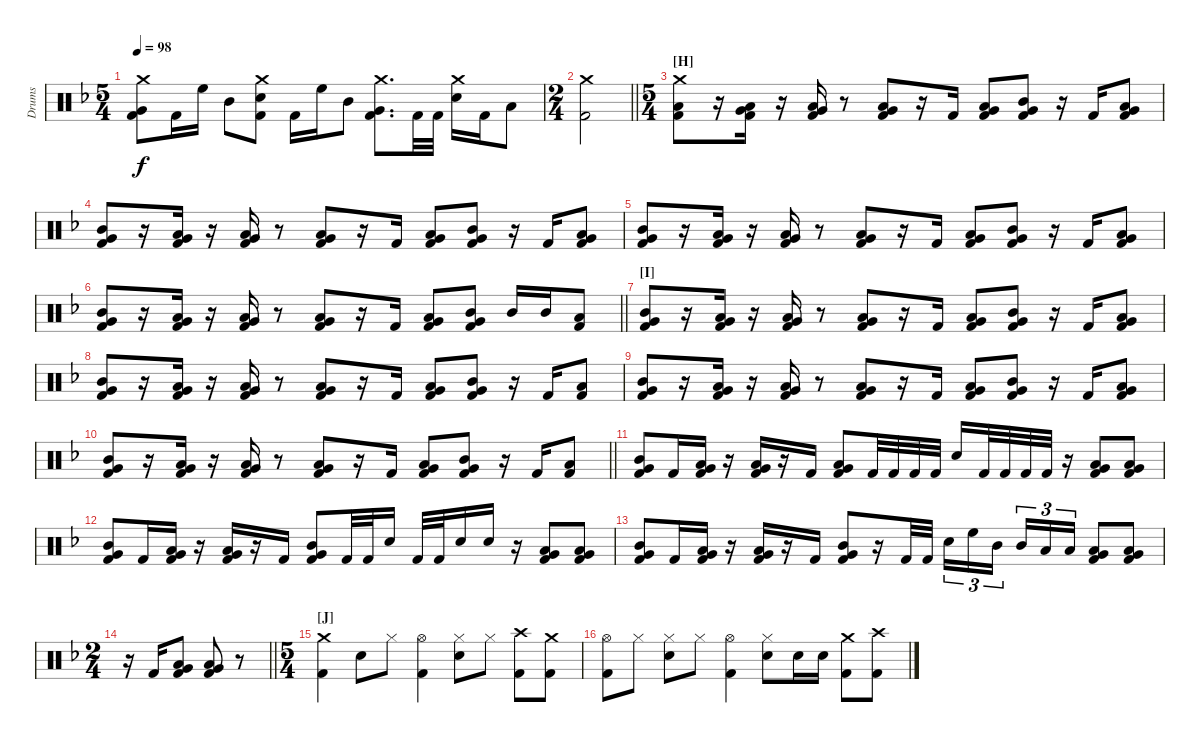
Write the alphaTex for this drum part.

\track ("Drums" "Drums") {instrument percussion}
\staff {score}
\articulation defaults
\ts (5 4)
\tempo 98
\clef neutral
\ks dminor
("Crash medium (hit)" "Very Low Tom (hit)" "Kick (hit) 2").8{dy f} "Kick (hit) 2".16 "High Floor Tom (hit)".16 "Mid Tom (hit)".8 ("Crash medium (hit)" "Electric Snare (hit)" "Kick (hit) 2").8 "Kick (hit) 2".16 "High Floor Tom (hit)".16 "Mid Tom (hit)".8 ("Crash medium (hit)" "Very Low Tom (hit)" "Kick (hit) 2").8{d} "Kick (hit) 2".32 "Kick (hit) 2".32 ("Crash medium (hit)" "Electric Snare (hit)").16 "Kick (hit) 2".16 "Low Tom (hit)".8 |
\ts (2 4)
\barLineRight lightlight
("Crash medium (hit)" "Kick (hit) 2").2 |
\ts (5 4)
\section ("" "[H]")
("Crash medium (hit)" "Low Tom (hit)" "Kick (hit) 2").8 r.16 ("Low Tom (hit)" "Very Low Tom (hit)" "Kick (hit) 2").16 r.16 ("Low Tom (hit)" "Very Low Tom (hit)" "Kick (hit) 2").16 r.8 ("Low Tom (hit)" "Very Low Tom (hit)" "Kick (hit) 2").8 r.16 "Kick (hit) 2".16 ("Low Tom (hit)" "Very Low Tom (hit)" "Kick (hit) 2").8 ("Mid Tom (hit)" "Very Low Tom (hit)" "Kick (hit) 2").8 r.16 "Kick (hit) 2".16 ("Low Tom (hit)" "Very Low Tom (hit)" "Kick (hit) 2").8 |
("Mid Tom (hit)" "Very Low Tom (hit)" "Kick (hit) 2").8 r.16 ("Low Tom (hit)" "Very Low Tom (hit)" "Kick (hit) 2").16 r.16 ("Low Tom (hit)" "Very Low Tom (hit)" "Kick (hit) 2").16 r.8 ("Low Tom (hit)" "Very Low Tom (hit)" "Kick (hit) 2").8 r.16 "Kick (hit) 2".16 ("Low Tom (hit)" "Very Low Tom (hit)" "Kick (hit) 2").8 ("Mid Tom (hit)" "Very Low Tom (hit)" "Kick (hit) 2").8 r.16 "Kick (hit) 2".16 ("Low Tom (hit)" "Very Low Tom (hit)" "Kick (hit) 2").8 |
("Mid Tom (hit)" "Very Low Tom (hit)" "Kick (hit) 2").8 r.16 ("Low Tom (hit)" "Very Low Tom (hit)" "Kick (hit) 2").16 r.16 ("Low Tom (hit)" "Very Low Tom (hit)" "Kick (hit) 2").16 r.8 ("Low Tom (hit)" "Very Low Tom (hit)" "Kick (hit) 2").8 r.16 "Kick (hit) 2".16 ("Low Tom (hit)" "Very Low Tom (hit)" "Kick (hit) 2").8 ("Mid Tom (hit)" "Very Low Tom (hit)" "Kick (hit) 2").8 r.16 "Kick (hit) 2".16 ("Low Tom (hit)" "Very Low Tom (hit)" "Kick (hit) 2").8 |
\barLineRight lightlight
("Mid Tom (hit)" "Very Low Tom (hit)" "Kick (hit) 2").8 r.16 ("Low Tom (hit)" "Very Low Tom (hit)" "Kick (hit) 2").16 r.16 ("Low Tom (hit)" "Very Low Tom (hit)" "Kick (hit) 2").16 r.8 ("Low Tom (hit)" "Very Low Tom (hit)" "Kick (hit) 2").8 r.16 "Kick (hit) 2".16 ("Low Tom (hit)" "Very Low Tom (hit)" "Kick (hit) 2").8 ("Mid Tom (hit)" "Very Low Tom (hit)" "Kick (hit) 2").8 "Mid Tom (hit)".16 "Mid Tom (hit)".16 ("Low Tom (hit)" "Kick (hit) 2").8 |
\section ("" "[I]")
("Mid Tom (hit)" "Very Low Tom (hit)" "Kick (hit) 2").8 r.16 ("Low Tom (hit)" "Very Low Tom (hit)" "Kick (hit) 2").16 r.16 ("Low Tom (hit)" "Very Low Tom (hit)" "Kick (hit) 2").16 r.8 ("Low Tom (hit)" "Very Low Tom (hit)" "Kick (hit) 2").8 r.16 "Kick (hit) 2".16 ("Low Tom (hit)" "Very Low Tom (hit)" "Kick (hit) 2").8 ("Mid Tom (hit)" "Very Low Tom (hit)" "Kick (hit) 2").8 r.16 "Kick (hit) 2".16 ("Low Tom (hit)" "Very Low Tom (hit)" "Kick (hit) 2").8 |
("Mid Tom (hit)" "Very Low Tom (hit)" "Kick (hit) 2").8 r.16 ("Low Tom (hit)" "Very Low Tom (hit)" "Kick (hit) 2").16 r.16 ("Low Tom (hit)" "Very Low Tom (hit)" "Kick (hit) 2").16 r.8 ("Low Tom (hit)" "Very Low Tom (hit)" "Kick (hit) 2").8 r.16 "Kick (hit) 2".16 ("Low Tom (hit)" "Very Low Tom (hit)" "Kick (hit) 2").8 ("Mid Tom (hit)" "Very Low Tom (hit)" "Kick (hit) 2").8 r.16 "Kick (hit) 2".16 ("Low Tom (hit)" "Kick (hit) 2").8 |
("Mid Tom (hit)" "Very Low Tom (hit)" "Kick (hit) 2").8 r.16 ("Low Tom (hit)" "Very Low Tom (hit)" "Kick (hit) 2").16 r.16 ("Low Tom (hit)" "Very Low Tom (hit)" "Kick (hit) 2").16 r.8 ("Low Tom (hit)" "Very Low Tom (hit)" "Kick (hit) 2").8 r.16 "Kick (hit) 2".16 ("Low Tom (hit)" "Very Low Tom (hit)" "Kick (hit) 2").8 ("Mid Tom (hit)" "Very Low Tom (hit)" "Kick (hit) 2").8 r.16 "Kick (hit) 2".16 ("Low Tom (hit)" "Very Low Tom (hit)" "Kick (hit) 2").8 |
\barLineRight lightlight
("Mid Tom (hit)" "Very Low Tom (hit)" "Kick (hit) 2").8 r.16 ("Low Tom (hit)" "Very Low Tom (hit)" "Kick (hit) 2").16 r.16 ("Low Tom (hit)" "Very Low Tom (hit)" "Kick (hit) 2").16 r.8 ("Low Tom (hit)" "Very Low Tom (hit)" "Kick (hit) 2").8 r.16 "Kick (hit) 2".16 ("Low Tom (hit)" "Very Low Tom (hit)" "Kick (hit) 2").8 ("Mid Tom (hit)" "Very Low Tom (hit)" "Kick (hit) 2").8 r.16 "Kick (hit) 2".16 ("Low Tom (hit)" "Kick (hit) 2").8 |
("Mid Tom (hit)" "Very Low Tom (hit)" "Kick (hit) 2").8 "Kick (hit) 2".16 ("Low Tom (hit)" "Very Low Tom (hit)" "Kick (hit) 2").16 r.16 ("Low Tom (hit)" "Very Low Tom (hit)" "Kick (hit) 2").16 r.16 "Kick (hit) 2".16 ("Low Tom (hit)" "Very Low Tom (hit)" "Kick (hit) 2").8 "Kick (hit) 2".32 "Kick (hit) 2".32 "Kick (hit) 2".32 "Kick (hit) 2".32 "Electric Snare (hit)".16 "Kick (hit) 2".32 "Kick (hit) 2".32 "Kick (hit) 2".32 "Kick (hit) 2".32 r.16 ("Low Tom (hit)" "Very Low Tom (hit)" "Kick (hit) 2").8 ("Low Tom (hit)" "Very Low Tom (hit)" "Kick (hit) 2").8 |
("Mid Tom (hit)" "Very Low Tom (hit)" "Kick (hit) 2").8 "Kick (hit) 2".16 ("Low Tom (hit)" "Very Low Tom (hit)" "Kick (hit) 2").16 r.16 ("Low Tom (hit)" "Very Low Tom (hit)" "Kick (hit) 2").16 r.16 "Kick (hit) 2".16 ("Mid Tom (hit)" "Very Low Tom (hit)" "Kick (hit) 2").8 "Kick (hit) 2".32 "Kick (hit) 2".32 "Electric Snare (hit)".16 "Kick (hit) 2".32 "Kick (hit) 2".32 "Electric Snare (hit)".16 "Electric Snare (hit)".16 r.16 ("Low Tom (hit)" "Very Low Tom (hit)" "Kick (hit) 2").8 ("Low Tom (hit)" "Very Low Tom (hit)" "Kick (hit) 2").8 |
("Mid Tom (hit)" "Very Low Tom (hit)" "Kick (hit) 2").8 "Kick (hit) 2".16 ("Low Tom (hit)" "Very Low Tom (hit)" "Kick (hit) 2").16 r.16 ("Low Tom (hit)" "Very Low Tom (hit)" "Kick (hit) 2").16 r.16 "Kick (hit) 2".16 ("Mid Tom (hit)" "Very Low Tom (hit)" "Kick (hit) 2").8 r.16 "Kick (hit) 2".32 "Kick (hit) 2".32 "Electric Snare (hit)".16{tu (3 2)} "High Floor Tom (hit)".16{tu (3 2)} "Mid Tom (hit)".16{tu (3 2) beam splitsecondary} "Mid Tom (hit)".16{tu (3 2)} "Low Tom (hit)".16{tu (3 2)} "Low Tom (hit)".16{tu (3 2)} ("Low Tom (hit)" "Very Low Tom (hit)" "Kick (hit) 2").8 ("Low Tom (hit)" "Very Low Tom (hit)" "Kick (hit) 2").8 |
\ts (2 4)
\barLineRight lightlight
r.16 "Kick (hit) 2".16 ("Very Low Tom (hit)" "Low Floor Tom (hit)" "Kick (hit) 2").8 ("Very Low Tom (hit)" "Low Floor Tom (hit)" "Kick (hit) 2").8 r.8 |
\ts (5 4)
\section ("" "[J]")
("Crash medium (hit)" "Kick (hit) 2").4 "Electric Snare (hit)".8 "Hi-Hat (closed)".8 ("Hi-Hat (open)" "Kick (hit) 2").4 ("Hi-Hat (closed)" "Electric Snare (hit)").8 "Hi-Hat (closed)".8{beam split} ("Crash high (hit)" "Kick (hit) 2").8 ("Crash medium (hit)" "Kick (hit) 2").8 |
("Hi-Hat (open)" "Kick (hit) 2").8 "Hi-Hat (closed)".8 ("Hi-Hat (closed)" "Electric Snare (hit)").8 "Hi-Hat (closed)".8 ("Hi-Hat (open)" "Kick (hit) 2").4 ("Hi-Hat (closed)" "Electric Snare (hit)").8 "Electric Snare (hit)".16 "Electric Snare (hit)".16 ("Crash medium (hit)" "Kick (hit) 2").8 ("Crash high (hit)" "Kick (hit) 2").8
